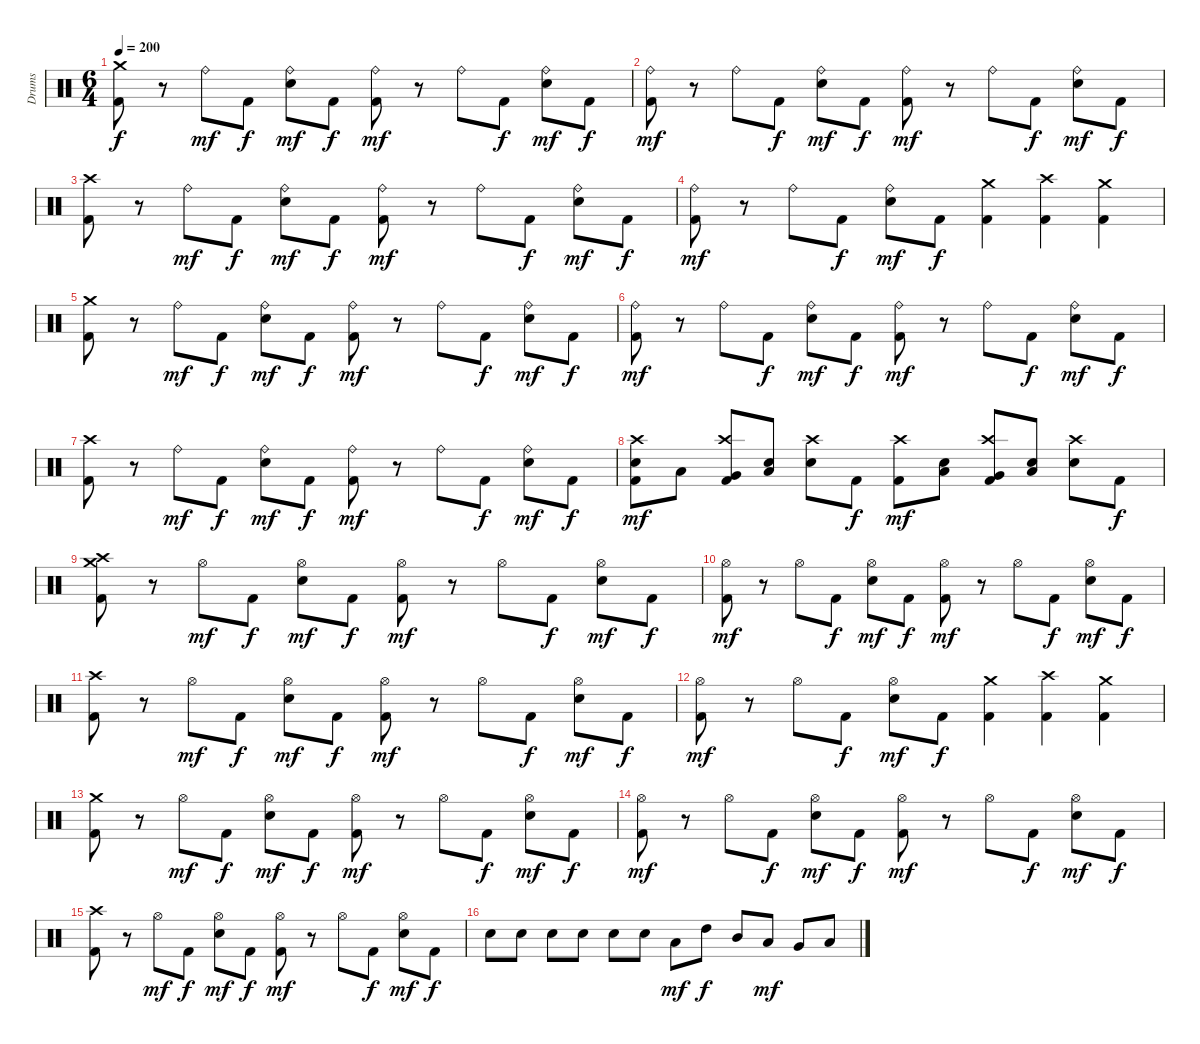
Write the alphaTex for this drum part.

\track ("Drums" "Drums") {instrument percussion}
\staff {score}
\articulation defaults
\ts (6 4)
\tempo 200
\clef neutral
\ks c
("Crash medium (hit)" "Kick (hit) 2").8{dy f} r.8 "Ride (bell)".8{dy mf} "Kick (hit) 2".8{dy f} ("Ride (bell)" "Snare (hit) 2").8{dy mf} "Kick (hit) 2".8{dy f} ("Ride (bell)" "Kick (hit) 2").8{dy mf} r.8 "Ride (bell)".8 "Kick (hit) 2".8{dy f} ("Ride (bell)" "Snare (hit) 2").8{dy mf} "Kick (hit) 2".8{dy f} |
("Ride (bell)" "Kick (hit) 2").8{dy mf} r.8 "Ride (bell)".8 "Kick (hit) 2".8{dy f} ("Ride (bell)" "Snare (hit) 2").8{dy mf} "Kick (hit) 2".8{dy f} ("Ride (bell)" "Kick (hit) 2").8{dy mf} r.8 "Ride (bell)".8 "Kick (hit) 2".8{dy f} ("Ride (bell)" "Snare (hit) 2").8{dy mf} "Kick (hit) 2".8{dy f} |
("Crash high (hit)" "Kick (hit) 2").8 r.8 "Ride (bell)".8{dy mf} "Kick (hit) 2".8{dy f} ("Ride (bell)" "Snare (hit) 2").8{dy mf} "Kick (hit) 2".8{dy f} ("Ride (bell)" "Kick (hit) 2").8{dy mf} r.8 "Ride (bell)".8 "Kick (hit) 2".8{dy f} ("Ride (bell)" "Snare (hit) 2").8{dy mf} "Kick (hit) 2".8{dy f} |
("Ride (bell)" "Kick (hit) 2").8{dy mf} r.8 "Ride (bell)".8 "Kick (hit) 2".8{dy f} ("Ride (bell)" "Snare (hit) 2").8{dy mf} "Kick (hit) 2".8{dy f} ("Crash medium (hit)" "Kick (hit) 2").4 ("Crash high (hit)" "Kick (hit) 2").4 ("Crash medium (hit)" "Kick (hit) 2").4 |
("Crash medium (hit)" "Kick (hit) 2").8 r.8 "Ride (bell)".8{dy mf} "Kick (hit) 2".8{dy f} ("Ride (bell)" "Snare (hit) 2").8{dy mf} "Kick (hit) 2".8{dy f} ("Ride (bell)" "Kick (hit) 2").8{dy mf} r.8 "Ride (bell)".8 "Kick (hit) 2".8{dy f} ("Ride (bell)" "Snare (hit) 2").8{dy mf} "Kick (hit) 2".8{dy f} |
("Ride (bell)" "Kick (hit) 2").8{dy mf} r.8 "Ride (bell)".8 "Kick (hit) 2".8{dy f} ("Ride (bell)" "Snare (hit) 2").8{dy mf} "Kick (hit) 2".8{dy f} ("Ride (bell)" "Kick (hit) 2").8{dy mf} r.8 "Ride (bell)".8 "Kick (hit) 2".8{dy f} ("Ride (bell)" "Snare (hit) 2").8{dy mf} "Kick (hit) 2".8{dy f} |
("Crash high (hit)" "Kick (hit) 2").8 r.8 "Ride (bell)".8{dy mf} "Kick (hit) 2".8{dy f} ("Ride (bell)" "Snare (hit) 2").8{dy mf} "Kick (hit) 2".8{dy f} ("Ride (bell)" "Kick (hit) 2").8{dy mf} r.8 "Ride (bell)".8 "Kick (hit) 2".8{dy f} ("Ride (bell)" "Snare (hit) 2").8{dy mf} "Kick (hit) 2".8{dy f} |
("Crash high (hit)" "Snare (hit) 2" "Kick (hit) 2").8{dy mf} "Low Tom (hit)".8 ("Crash high (hit)" "Very Low Tom (hit)" "Kick (hit) 2").8 ("Low Floor Tom (hit)" "Snare (hit) 2").8 ("Crash high (hit)" "Snare (hit) 2").8 "Kick (hit) 2".8{dy f} ("Crash high (hit)" "Kick (hit) 2").8{dy mf} ("Low Tom (hit)" "Snare (hit) 2").8 ("Crash high (hit)" "Very Low Tom (hit)" "Kick (hit) 2").8 ("Low Floor Tom (hit)" "Snare (hit) 2").8 ("Crash high (hit)" "Snare (hit) 2").8 "Kick (hit) 2".8{dy f} |
("Crash medium (hit)" "Crash high (hit)" "Kick (hit) 2").8 r.8 "Hi-Hat (open)".8{dy mf} "Kick (hit) 2".8{dy f} ("Hi-Hat (open)" "Snare (hit) 2").8{dy mf} "Kick (hit) 2".8{dy f} ("Hi-Hat (open)" "Kick (hit) 2").8{dy mf} r.8 "Hi-Hat (open)".8 "Kick (hit) 2".8{dy f} ("Hi-Hat (open)" "Snare (hit) 2").8{dy mf} "Kick (hit) 2".8{dy f} |
("Hi-Hat (open)" "Kick (hit) 2").8{dy mf} r.8 "Hi-Hat (open)".8 "Kick (hit) 2".8{dy f} ("Hi-Hat (open)" "Snare (hit) 2").8{dy mf} "Kick (hit) 2".8{dy f} ("Hi-Hat (open)" "Kick (hit) 2").8{dy mf} r.8 "Hi-Hat (open)".8 "Kick (hit) 2".8{dy f} ("Hi-Hat (open)" "Snare (hit) 2").8{dy mf} "Kick (hit) 2".8{dy f} |
("Crash high (hit)" "Kick (hit) 2").8 r.8 "Hi-Hat (open)".8{dy mf} "Kick (hit) 2".8{dy f} ("Hi-Hat (open)" "Snare (hit) 2").8{dy mf} "Kick (hit) 2".8{dy f} ("Hi-Hat (open)" "Kick (hit) 2").8{dy mf} r.8 "Hi-Hat (open)".8 "Kick (hit) 2".8{dy f} ("Hi-Hat (open)" "Snare (hit) 2").8{dy mf} "Kick (hit) 2".8{dy f} |
("Hi-Hat (open)" "Kick (hit) 2").8{dy mf} r.8 "Hi-Hat (open)".8 "Kick (hit) 2".8{dy f} ("Hi-Hat (open)" "Snare (hit) 2").8{dy mf} "Kick (hit) 2".8{dy f} ("Crash medium (hit)" "Kick (hit) 2").4 ("Crash high (hit)" "Kick (hit) 2").4 ("Crash medium (hit)" "Kick (hit) 2").4 |
("Crash medium (hit)" "Kick (hit) 2").8 r.8 "Hi-Hat (open)".8{dy mf} "Kick (hit) 2".8{dy f} ("Hi-Hat (open)" "Snare (hit) 2").8{dy mf} "Kick (hit) 2".8{dy f} ("Hi-Hat (open)" "Kick (hit) 2").8{dy mf} r.8 "Hi-Hat (open)".8 "Kick (hit) 2".8{dy f} ("Hi-Hat (open)" "Snare (hit) 2").8{dy mf} "Kick (hit) 2".8{dy f} |
("Hi-Hat (open)" "Kick (hit) 2").8{dy mf} r.8 "Hi-Hat (open)".8 "Kick (hit) 2".8{dy f} ("Hi-Hat (open)" "Snare (hit) 2").8{dy mf} "Kick (hit) 2".8{dy f} ("Hi-Hat (open)" "Kick (hit) 2").8{dy mf} r.8 "Hi-Hat (open)".8 "Kick (hit) 2".8{dy f} ("Hi-Hat (open)" "Snare (hit) 2").8{dy mf} "Kick (hit) 2".8{dy f} |
("Crash high (hit)" "Kick (hit) 2").8 r.8 "Hi-Hat (open)".8{dy mf} "Kick (hit) 2".8{dy f} ("Hi-Hat (open)" "Snare (hit) 2").8{dy mf} "Kick (hit) 2".8{dy f} ("Hi-Hat (open)" "Kick (hit) 2").8{dy mf} r.8 "Hi-Hat (open)".8 "Kick (hit) 2".8{dy f} ("Hi-Hat (open)" "Snare (hit) 2").8{dy mf} "Kick (hit) 2".8{dy f} |
"Snare (hit) 2".8 "Snare (hit) 2".8 "Snare (hit) 2".8 "Snare (hit) 2".8 "Snare (hit) 2".8 "Snare (hit) 2".8 "Low Floor Tom (hit)".8{dy mf} "High Tom (hit)".8{dy f} "Mid Tom (hit)".8 "Low Tom (hit)".8{dy mf} "Very Low Tom (hit)".8 "Low Floor Tom (hit)".8
